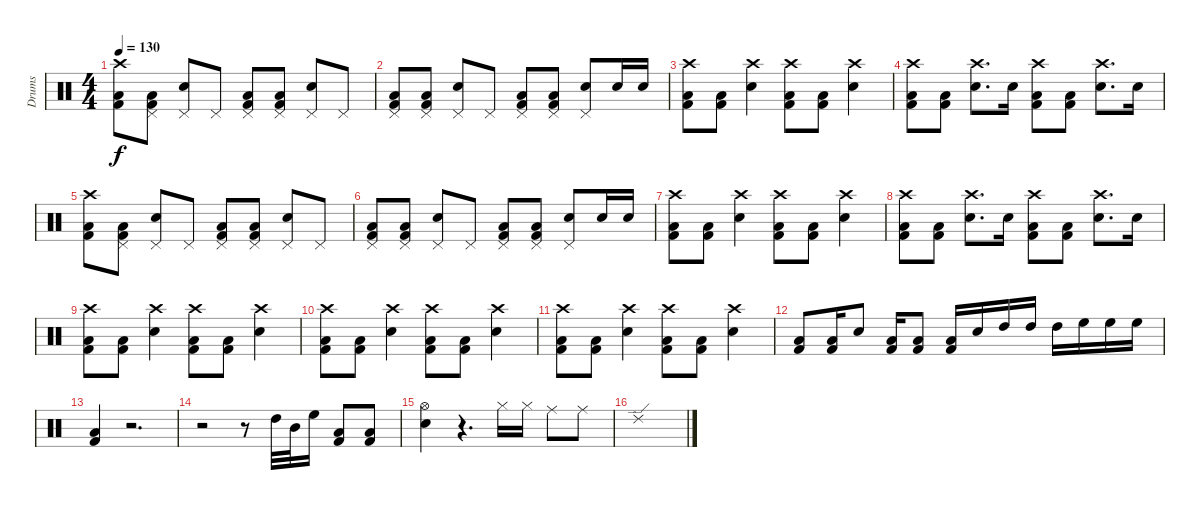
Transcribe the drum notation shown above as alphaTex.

\track ("Drums" "Drums") {instrument percussion}
\staff {score}
\articulation defaults
\ts (4 4)
\tempo 130
\clef neutral
\ks c
("Kick (hit) 2" "Low Floor Tom (hit)" "Crash high (hit)").8{dy f} ("Kick (hit) 2" "Low Floor Tom (hit)" "Pedal Hi-Hat (hit)").8 ("Electric Snare (hit)" "Pedal Hi-Hat (hit)").8 "Pedal Hi-Hat (hit)".8 ("Kick (hit) 2" "Low Floor Tom (hit)" "Pedal Hi-Hat (hit)").8 ("Kick (hit) 2" "Low Floor Tom (hit)" "Pedal Hi-Hat (hit)").8 ("Electric Snare (hit)" "Pedal Hi-Hat (hit)").8 "Pedal Hi-Hat (hit)".8 |
("Kick (hit) 2" "Low Floor Tom (hit)" "Pedal Hi-Hat (hit)").8 ("Kick (hit) 2" "Low Floor Tom (hit)" "Pedal Hi-Hat (hit)").8 ("Electric Snare (hit)" "Pedal Hi-Hat (hit)").8 "Pedal Hi-Hat (hit)".8 ("Kick (hit) 2" "Low Floor Tom (hit)" "Pedal Hi-Hat (hit)").8 ("Kick (hit) 2" "Low Floor Tom (hit)" "Pedal Hi-Hat (hit)").8 ("Electric Snare (hit)" "Pedal Hi-Hat (hit)").8 "Electric Snare (hit)".16 "Electric Snare (hit)".16 |
("Kick (hit) 2" "Low Floor Tom (hit)" "Crash high (hit)").8 ("Kick (hit) 2" "Low Floor Tom (hit)").8 ("Electric Snare (hit)" "Crash high (hit)").4 ("Kick (hit) 2" "Low Floor Tom (hit)" "Crash high (hit)").8 ("Kick (hit) 2" "Low Floor Tom (hit)").8 ("Electric Snare (hit)" "Crash high (hit)").4 |
("Kick (hit) 2" "Low Floor Tom (hit)" "Crash high (hit)").8 ("Kick (hit) 2" "Low Floor Tom (hit)").8 ("Electric Snare (hit)" "Crash high (hit)").8{d} "Electric Snare (hit)".16 ("Kick (hit) 2" "Low Floor Tom (hit)" "Crash high (hit)").8 ("Kick (hit) 2" "Low Floor Tom (hit)").8 ("Electric Snare (hit)" "Crash high (hit)").8{d} "Electric Snare (hit)".16 |
("Kick (hit) 2" "Low Floor Tom (hit)" "Crash high (hit)").8 ("Kick (hit) 2" "Low Floor Tom (hit)" "Pedal Hi-Hat (hit)").8 ("Electric Snare (hit)" "Pedal Hi-Hat (hit)").8 "Pedal Hi-Hat (hit)".8 ("Kick (hit) 2" "Low Floor Tom (hit)" "Pedal Hi-Hat (hit)").8 ("Kick (hit) 2" "Low Floor Tom (hit)" "Pedal Hi-Hat (hit)").8 ("Electric Snare (hit)" "Pedal Hi-Hat (hit)").8 "Pedal Hi-Hat (hit)".8 |
("Kick (hit) 2" "Low Floor Tom (hit)" "Pedal Hi-Hat (hit)").8 ("Kick (hit) 2" "Low Floor Tom (hit)" "Pedal Hi-Hat (hit)").8 ("Electric Snare (hit)" "Pedal Hi-Hat (hit)").8 "Pedal Hi-Hat (hit)".8 ("Kick (hit) 2" "Low Floor Tom (hit)" "Pedal Hi-Hat (hit)").8 ("Kick (hit) 2" "Low Floor Tom (hit)" "Pedal Hi-Hat (hit)").8 ("Electric Snare (hit)" "Pedal Hi-Hat (hit)").8 "Electric Snare (hit)".16 "Electric Snare (hit)".16 |
("Kick (hit) 2" "Low Floor Tom (hit)" "Crash high (hit)").8 ("Kick (hit) 2" "Low Floor Tom (hit)").8 ("Electric Snare (hit)" "Crash high (hit)").4 ("Kick (hit) 2" "Low Floor Tom (hit)" "Crash high (hit)").8 ("Kick (hit) 2" "Low Floor Tom (hit)").8 ("Electric Snare (hit)" "Crash high (hit)").4 |
("Kick (hit) 2" "Low Floor Tom (hit)" "Crash high (hit)").8 ("Kick (hit) 2" "Low Floor Tom (hit)").8 ("Electric Snare (hit)" "Crash high (hit)").8{d} "Electric Snare (hit)".16 ("Kick (hit) 2" "Low Floor Tom (hit)" "Crash high (hit)").8 ("Kick (hit) 2" "Low Floor Tom (hit)").8 ("Electric Snare (hit)" "Crash high (hit)").8{d} "Electric Snare (hit)".16 |
("Kick (hit) 2" "Low Floor Tom (hit)" "Crash high (hit)").8 ("Kick (hit) 2" "Low Floor Tom (hit)").8 ("Electric Snare (hit)" "Crash high (hit)").4 ("Kick (hit) 2" "Low Floor Tom (hit)" "Crash high (hit)").8 ("Kick (hit) 2" "Low Floor Tom (hit)").8 ("Electric Snare (hit)" "Crash high (hit)").4 |
("Kick (hit) 2" "Low Floor Tom (hit)" "Crash high (hit)").8 ("Kick (hit) 2" "Low Floor Tom (hit)").8 ("Electric Snare (hit)" "Crash high (hit)").4 ("Kick (hit) 2" "Low Floor Tom (hit)" "Crash high (hit)").8 ("Kick (hit) 2" "Low Floor Tom (hit)").8 ("Electric Snare (hit)" "Crash high (hit)").4 |
("Kick (hit) 2" "Low Floor Tom (hit)" "Crash high (hit)").8 ("Kick (hit) 2" "Low Floor Tom (hit)").8 ("Electric Snare (hit)" "Crash high (hit)").4 ("Kick (hit) 2" "Low Floor Tom (hit)" "Crash high (hit)").8 ("Kick (hit) 2" "Low Floor Tom (hit)").8 ("Electric Snare (hit)" "Crash high (hit)").4 |
("Kick (hit) 2" "Low Floor Tom (hit)").8 ("Kick (hit) 2" "Low Floor Tom (hit)").16 "Electric Snare (hit)".8 ("Kick (hit) 2" "Low Floor Tom (hit)").16 ("Kick (hit) 2" "Low Floor Tom (hit)").8 ("Kick (hit) 2" "Low Floor Tom (hit)").16 "Electric Snare (hit)".16 "High Tom (hit)".16 "High Tom (hit)".16 "High Tom (hit)".16 "High Floor Tom (hit)".16 "High Floor Tom (hit)".16 "High Floor Tom (hit)".16 |
("Kick (hit) 2" "Low Floor Tom (hit)").4 r.2{d} |
r.2 r.8 "High Tom (hit)".32 "Mid Tom (hit)".32 "High Floor Tom (hit)".16 ("Kick (hit) 2" "Low Floor Tom (hit)").8 ("Kick (hit) 2" "Low Floor Tom (hit)").8 |
("Electric Snare (hit)" "Hi-Hat (open)").4 r.4{d} "Hi-Hat (closed)".16 "Hi-Hat (closed)".16 "Ride (middle)".8 "Ride (middle)".8 |
"Ride (edge) 2".1
